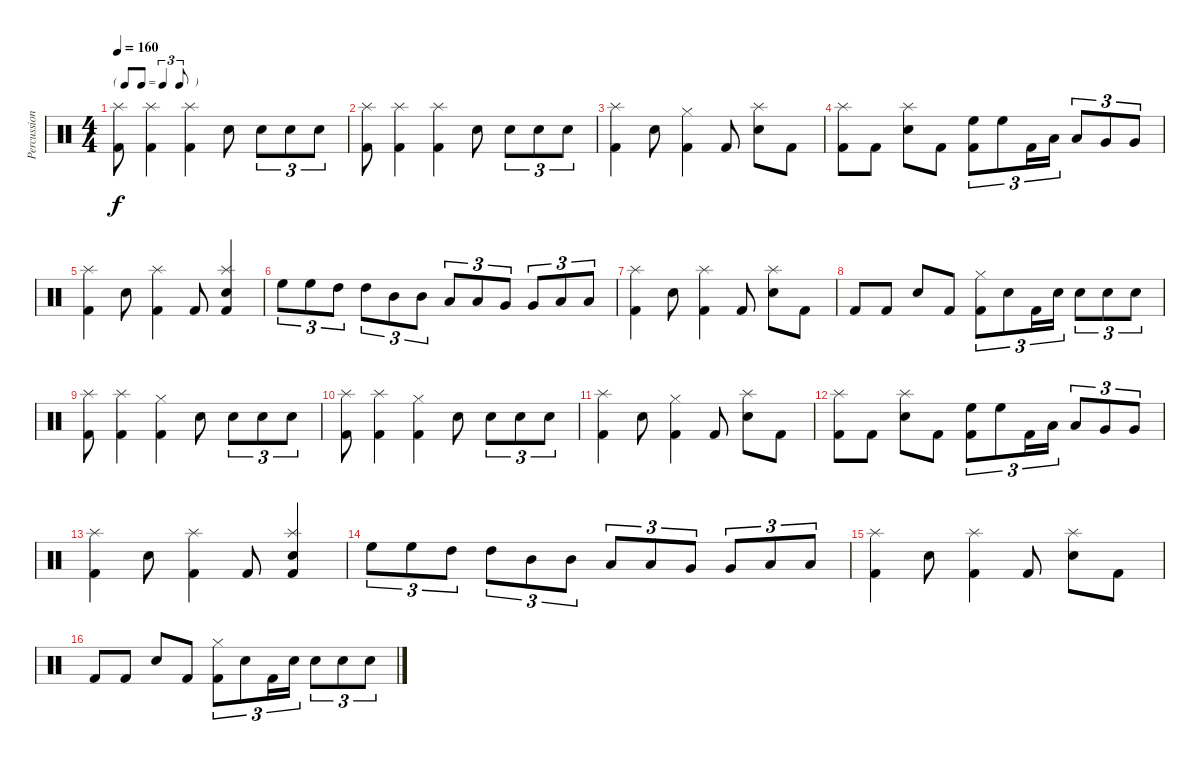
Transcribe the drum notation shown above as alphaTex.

\track ("Percussion" "Percussion") {instrument percussion}
\staff {score}
\articulation defaults
\ts (4 4)
\tf triplet8th
\tempo 160
\clef neutral
\ks c
("Kick (hit) 2" "Splash (hit)").8{dy f} ("Kick (hit) 2" "Splash (hit)").4 ("Kick (hit) 2" "Splash (hit)").4 "Snare (hit) 2".8 "Snare (hit) 2".8{tu (3 2)} "Snare (hit) 2".8{tu (3 2)} "Snare (hit) 2".8{tu (3 2)} |
("Kick (hit) 2" "Splash (hit)").8 ("Kick (hit) 2" "Splash (hit)").4 ("Kick (hit) 2" "Splash (hit)").4 "Snare (hit) 2".8 "Snare (hit) 2".8{tu (3 2)} "Snare (hit) 2".8{tu (3 2)} "Snare (hit) 2".8{tu (3 2)} |
("Kick (hit) 2" "Splash (hit)").4 "Snare (hit) 2".8 ("Kick (hit) 2" "Hi-Hat (closed)").4 "Kick (hit) 2".8 ("Snare (hit) 2" "Splash (hit)").8 "Kick (hit) 2".8 |
("Kick (hit) 2" "Splash (hit)").8 "Kick (hit) 2".8 ("Snare (hit) 2" "Splash (hit)").8 "Kick (hit) 2".8 ("Kick (hit) 2" "High Floor Tom (hit)").8{tu (3 2)} "High Floor Tom (hit)".8{tu (3 2)} "Kick (hit) 2".16{tu (3 2)} "Low Tom (hit)".16{tu (3 2)} "Low Tom (hit)".8{tu (3 2)} "Very Low Tom (hit)".8{tu (3 2)} "Very Low Tom (hit)".8{tu (3 2)} |
("Kick (hit) 2" "Splash (hit)").4 "Snare (hit) 2".8 ("Kick (hit) 2" "Splash (hit)").4 "Kick (hit) 2".8 ("Kick (hit) 2" "Snare (hit) 2" "Splash (hit)").4 |
"High Floor Tom (hit)".8{tu (3 2)} "High Floor Tom (hit)".8{tu (3 2)} "High Tom (hit)".8{tu (3 2)} "High Tom (hit)".8{tu (3 2)} "Mid Tom (hit)".8{tu (3 2)} "Mid Tom (hit)".8{tu (3 2)} "Low Tom (hit)".8{tu (3 2)} "Low Tom (hit)".8{tu (3 2)} "Very Low Tom (hit)".8{tu (3 2)} "Very Low Tom (hit)".8{tu (3 2)} "Low Floor Tom (hit)".8{tu (3 2)} "Low Floor Tom (hit)".8{tu (3 2)} |
("Kick (hit) 2" "Splash (hit)").4 "Snare (hit) 2".8 ("Kick (hit) 2" "Splash (hit)").4 "Kick (hit) 2".8 ("Snare (hit) 2" "Splash (hit)").8 "Kick (hit) 2".8 |
"Kick (hit) 2".8 "Kick (hit) 2".8 "Snare (hit) 2".8 "Kick (hit) 2".8 ("Kick (hit) 2" "Hi-Hat (closed)").8{tu (3 2)} "Snare (hit) 2".8{tu (3 2)} "Kick (hit) 2".16{tu (3 2)} "Snare (hit) 2".16{tu (3 2)} "Snare (hit) 2".8{tu (3 2)} "Snare (hit) 2".8{tu (3 2)} "Snare (hit) 2".8{tu (3 2)} |
("Kick (hit) 2" "Splash (hit)").8 ("Kick (hit) 2" "Splash (hit)").4 ("Kick (hit) 2" "Hi-Hat (closed)").4 "Snare (hit) 2".8 "Snare (hit) 2".8{tu (3 2)} "Snare (hit) 2".8{tu (3 2)} "Snare (hit) 2".8{tu (3 2)} |
("Kick (hit) 2" "Splash (hit)").8 ("Kick (hit) 2" "Splash (hit)").4 ("Kick (hit) 2" "Hi-Hat (closed)").4 "Snare (hit) 2".8 "Snare (hit) 2".8{tu (3 2)} "Snare (hit) 2".8{tu (3 2)} "Snare (hit) 2".8{tu (3 2)} |
("Kick (hit) 2" "Splash (hit)").4 "Snare (hit) 2".8 ("Kick (hit) 2" "Hi-Hat (closed)").4 "Kick (hit) 2".8 ("Snare (hit) 2" "Splash (hit)").8 "Kick (hit) 2".8 |
("Kick (hit) 2" "Splash (hit)").8 "Kick (hit) 2".8 ("Snare (hit) 2" "Splash (hit)").8 "Kick (hit) 2".8 ("Kick (hit) 2" "High Floor Tom (hit)").8{tu (3 2)} "High Floor Tom (hit)".8{tu (3 2)} "Kick (hit) 2".16{tu (3 2)} "Low Tom (hit)".16{tu (3 2)} "Low Tom (hit)".8{tu (3 2)} "Very Low Tom (hit)".8{tu (3 2)} "Very Low Tom (hit)".8{tu (3 2)} |
("Kick (hit) 2" "Splash (hit)").4 "Snare (hit) 2".8 ("Kick (hit) 2" "Splash (hit)").4 "Kick (hit) 2".8 ("Kick (hit) 2" "Snare (hit) 2" "Splash (hit)").4 |
"High Floor Tom (hit)".8{tu (3 2)} "High Floor Tom (hit)".8{tu (3 2)} "High Tom (hit)".8{tu (3 2)} "High Tom (hit)".8{tu (3 2)} "Mid Tom (hit)".8{tu (3 2)} "Mid Tom (hit)".8{tu (3 2)} "Low Tom (hit)".8{tu (3 2)} "Low Tom (hit)".8{tu (3 2)} "Very Low Tom (hit)".8{tu (3 2)} "Very Low Tom (hit)".8{tu (3 2)} "Low Floor Tom (hit)".8{tu (3 2)} "Low Floor Tom (hit)".8{tu (3 2)} |
("Kick (hit) 2" "Splash (hit)").4 "Snare (hit) 2".8 ("Kick (hit) 2" "Splash (hit)").4 "Kick (hit) 2".8 ("Snare (hit) 2" "Splash (hit)").8 "Kick (hit) 2".8 |
"Kick (hit) 2".8 "Kick (hit) 2".8 "Snare (hit) 2".8 "Kick (hit) 2".8 ("Kick (hit) 2" "Hi-Hat (closed)").8{tu (3 2)} "Snare (hit) 2".8{tu (3 2)} "Kick (hit) 2".16{tu (3 2)} "Snare (hit) 2".16{tu (3 2)} "Snare (hit) 2".8{tu (3 2)} "Snare (hit) 2".8{tu (3 2)} "Snare (hit) 2".8{tu (3 2)}
